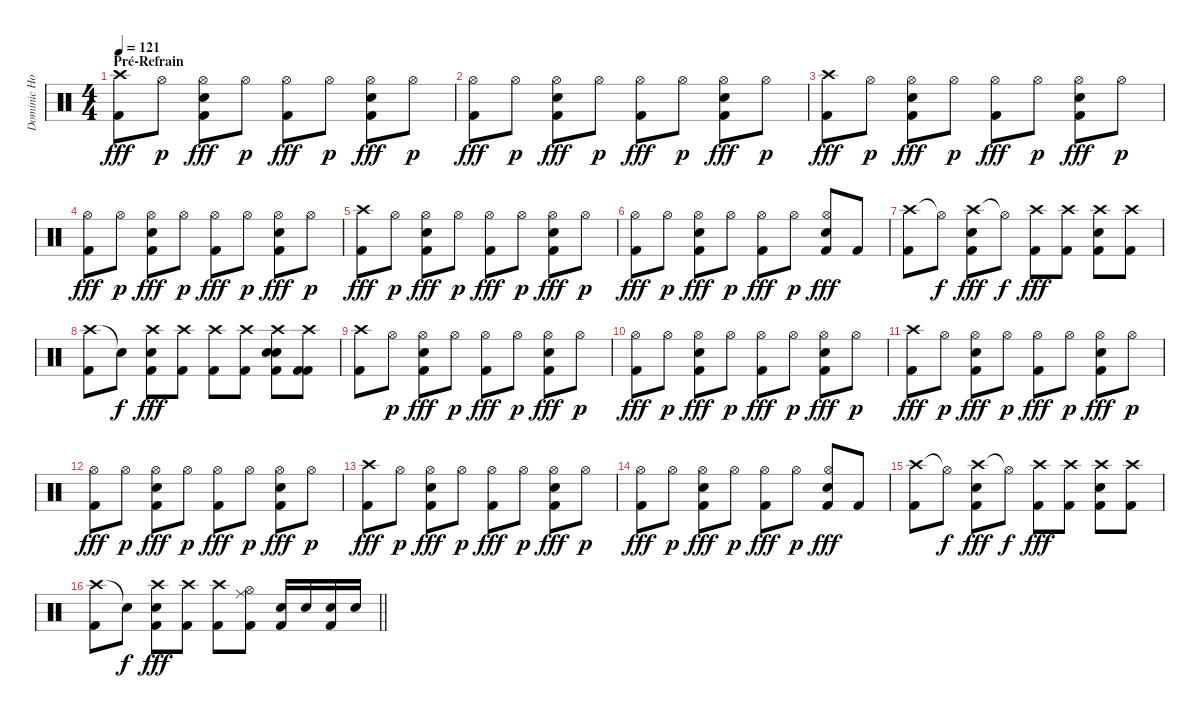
\track ("Dominic Howard" "Dominic Ho") {instrument percussion}
\staff {score}
\articulation defaults
\ts (4 4)
\section ("" "Pré-Refrain")
\tempo 121
\clef neutral
\ks c
("Crash high (hit)" "Kick (hit) 2").8{dy fff} "Hi-Hat (open)".8{dy p} ("Hi-Hat (open)" "Electric Snare (hit)" "Kick (hit) 2").8{dy fff} "Hi-Hat (open)".8{dy p} ("Hi-Hat (open)" "Kick (hit) 2").8{dy fff} "Hi-Hat (open)".8{dy p} ("Hi-Hat (open)" "Electric Snare (hit)" "Kick (hit) 2").8{dy fff} "Hi-Hat (open)".8{dy p} |
("Hi-Hat (open)" "Kick (hit) 2").8{dy fff} "Hi-Hat (open)".8{dy p} ("Hi-Hat (open)" "Electric Snare (hit)" "Kick (hit) 2").8{dy fff} "Hi-Hat (open)".8{dy p} ("Hi-Hat (open)" "Kick (hit) 2").8{dy fff} "Hi-Hat (open)".8{dy p} ("Hi-Hat (open)" "Electric Snare (hit)" "Kick (hit) 2").8{dy fff} "Hi-Hat (open)".8{dy p} |
("Crash high (hit)" "Kick (hit) 2").8{dy fff} "Hi-Hat (open)".8{dy p} ("Hi-Hat (open)" "Electric Snare (hit)" "Kick (hit) 2").8{dy fff} "Hi-Hat (open)".8{dy p} ("Hi-Hat (open)" "Kick (hit) 2").8{dy fff} "Hi-Hat (open)".8{dy p} ("Hi-Hat (open)" "Electric Snare (hit)" "Kick (hit) 2").8{dy fff} "Hi-Hat (open)".8{dy p} |
("Hi-Hat (open)" "Kick (hit) 2").8{dy fff} "Hi-Hat (open)".8{dy p} ("Hi-Hat (open)" "Electric Snare (hit)" "Kick (hit) 2").8{dy fff} "Hi-Hat (open)".8{dy p} ("Hi-Hat (open)" "Kick (hit) 2").8{dy fff} "Hi-Hat (open)".8{dy p} ("Hi-Hat (open)" "Electric Snare (hit)" "Kick (hit) 2").8{dy fff} "Hi-Hat (open)".8{dy p} |
("Crash high (hit)" "Kick (hit) 2").8{dy fff} "Hi-Hat (open)".8{dy p} ("Hi-Hat (open)" "Electric Snare (hit)" "Kick (hit) 2").8{dy fff} "Hi-Hat (open)".8{dy p} ("Hi-Hat (open)" "Kick (hit) 2").8{dy fff} "Hi-Hat (open)".8{dy p} ("Hi-Hat (open)" "Electric Snare (hit)" "Kick (hit) 2").8{dy fff} "Hi-Hat (open)".8{dy p} |
("Hi-Hat (open)" "Kick (hit) 2").8{dy fff} "Hi-Hat (open)".8{dy p} ("Hi-Hat (open)" "Electric Snare (hit)" "Kick (hit) 2").8{dy fff} "Hi-Hat (open)".8{dy p} ("Hi-Hat (open)" "Kick (hit) 2").8{dy fff} "Hi-Hat (open)".8{dy p} ("Hi-Hat (open)" "Electric Snare (hit)" "Kick (hit) 2").8{dy fff} "Kick (hit) 2".8 |
("Crash high (hit)" "Kick (hit) 2").8 "Hi-Hat (open)"{t}.8{dy f} ("Crash high (hit)" "Electric Snare (hit)" "Kick (hit) 2").8{dy fff} "Hi-Hat (open)"{t}.8{dy f} ("Crash high (hit)" "Kick (hit) 2").8{dy fff} ("Crash high (hit)" "Kick (hit) 2").8 ("Crash high (hit)" "Electric Snare (hit)" "Kick (hit) 2").8 ("Crash high (hit)" "Kick (hit) 2").8 |
("Crash high (hit)" "Kick (hit) 2").8 "Snare (hit)"{t}.8{dy f} ("Crash high (hit)" "Electric Snare (hit)" "Kick (hit) 2").8{dy fff} ("Crash high (hit)" "Kick (hit) 2").8 ("Crash high (hit)" "Kick (hit) 2").8 ("Crash high (hit)" "Kick (hit) 2").8 ("Crash high (hit)" "Electric Snare (hit)" "Electric Snare (hit)" "Kick (hit) 2").8 ("Crash high (hit)" "Kick (hit) 2" "Kick (hit) 2").8 |
("Crash high (hit)" "Kick (hit) 2").8 "Hi-Hat (open)".8{dy p} ("Hi-Hat (open)" "Electric Snare (hit)" "Kick (hit) 2").8{dy fff} "Hi-Hat (open)".8{dy p} ("Hi-Hat (open)" "Kick (hit) 2").8{dy fff} "Hi-Hat (open)".8{dy p} ("Hi-Hat (open)" "Electric Snare (hit)" "Kick (hit) 2").8{dy fff} "Hi-Hat (open)".8{dy p} |
("Hi-Hat (open)" "Kick (hit) 2").8{dy fff} "Hi-Hat (open)".8{dy p} ("Hi-Hat (open)" "Electric Snare (hit)" "Kick (hit) 2").8{dy fff} "Hi-Hat (open)".8{dy p} ("Hi-Hat (open)" "Kick (hit) 2").8{dy fff} "Hi-Hat (open)".8{dy p} ("Hi-Hat (open)" "Electric Snare (hit)" "Kick (hit) 2").8{dy fff} "Hi-Hat (open)".8{dy p} |
("Crash high (hit)" "Kick (hit) 2").8{dy fff} "Hi-Hat (open)".8{dy p} ("Hi-Hat (open)" "Electric Snare (hit)" "Kick (hit) 2").8{dy fff} "Hi-Hat (open)".8{dy p} ("Hi-Hat (open)" "Kick (hit) 2").8{dy fff} "Hi-Hat (open)".8{dy p} ("Hi-Hat (open)" "Electric Snare (hit)" "Kick (hit) 2").8{dy fff} "Hi-Hat (open)".8{dy p} |
("Hi-Hat (open)" "Kick (hit) 2").8{dy fff} "Hi-Hat (open)".8{dy p} ("Hi-Hat (open)" "Electric Snare (hit)" "Kick (hit) 2").8{dy fff} "Hi-Hat (open)".8{dy p} ("Hi-Hat (open)" "Kick (hit) 2").8{dy fff} "Hi-Hat (open)".8{dy p} ("Hi-Hat (open)" "Electric Snare (hit)" "Kick (hit) 2").8{dy fff} "Hi-Hat (open)".8{dy p} |
("Crash high (hit)" "Kick (hit) 2").8{dy fff} "Hi-Hat (open)".8{dy p} ("Hi-Hat (open)" "Electric Snare (hit)" "Kick (hit) 2").8{dy fff} "Hi-Hat (open)".8{dy p} ("Hi-Hat (open)" "Kick (hit) 2").8{dy fff} "Hi-Hat (open)".8{dy p} ("Hi-Hat (open)" "Electric Snare (hit)" "Kick (hit) 2").8{dy fff} "Hi-Hat (open)".8{dy p} |
("Hi-Hat (open)" "Kick (hit) 2").8{dy fff} "Hi-Hat (open)".8{dy p} ("Hi-Hat (open)" "Electric Snare (hit)" "Kick (hit) 2").8{dy fff} "Hi-Hat (open)".8{dy p} ("Hi-Hat (open)" "Kick (hit) 2").8{dy fff} "Hi-Hat (open)".8{dy p} ("Hi-Hat (open)" "Electric Snare (hit)" "Kick (hit) 2").8{dy fff} "Kick (hit) 2".8 |
("Crash high (hit)" "Kick (hit) 2").8 "Hi-Hat (open)"{t}.8{dy f} ("Crash high (hit)" "Electric Snare (hit)" "Kick (hit) 2").8{dy fff} "Hi-Hat (open)"{t}.8{dy f} ("Crash high (hit)" "Kick (hit) 2").8{dy fff} ("Crash high (hit)" "Kick (hit) 2").8 ("Crash high (hit)" "Electric Snare (hit)" "Kick (hit) 2").8 ("Crash high (hit)" "Kick (hit) 2").8 |
\barLineRight lightlight
("Crash high (hit)" "Kick (hit) 2").8 "Snare (hit)"{t}.8{dy f} ("Crash high (hit)" "Electric Snare (hit)" "Kick (hit) 2").8{dy fff} ("Crash high (hit)" "Kick (hit) 2").8 ("Crash high (hit)" "Kick (hit) 2").8 ("Hi-Hat (open)" "Ride (middle)" "Kick (hit) 2").8 ("Electric Snare (hit)" "Kick (hit) 2").16 "Electric Snare (hit)".16 ("Electric Snare (hit)" "Kick (hit) 2").16 "Electric Snare (hit)".16
